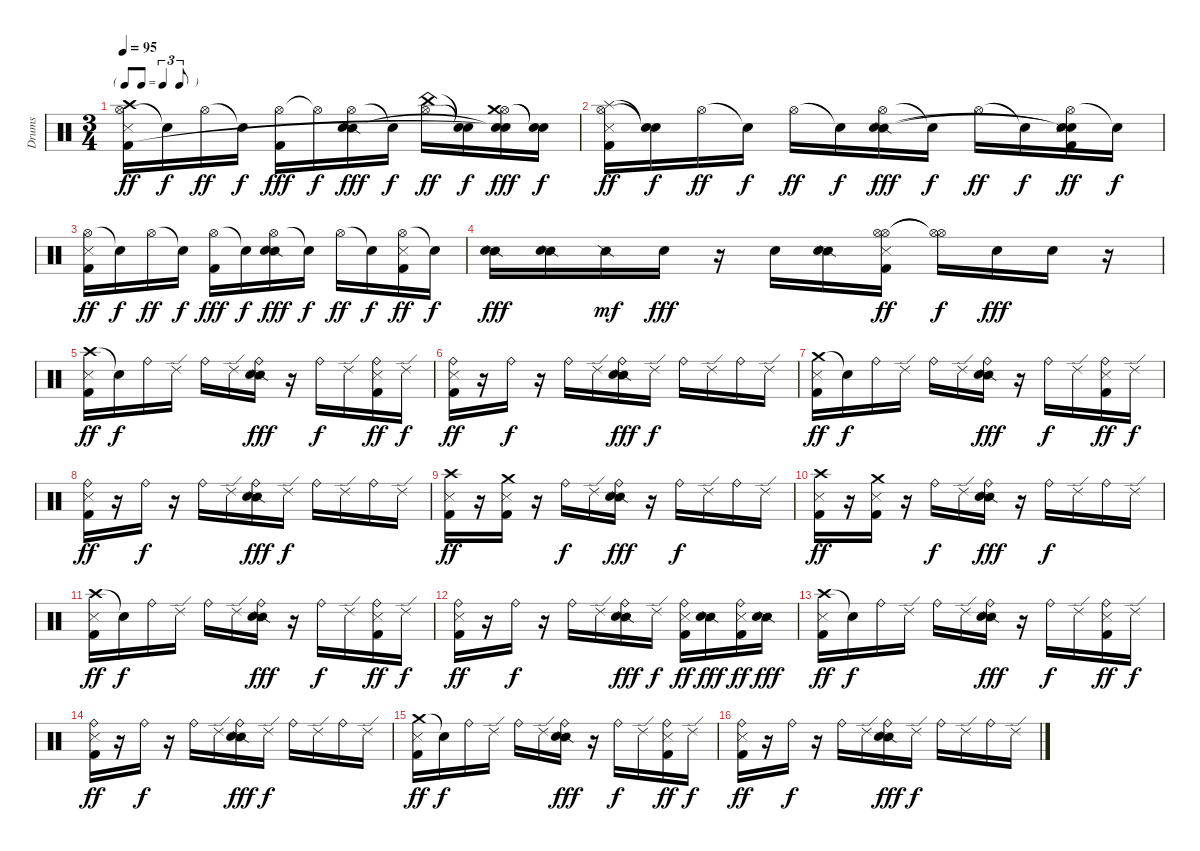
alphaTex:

\track ("Drums" "Drums") {instrument percussion}
\staff {score}
\articulation defaults
\ts (3 4)
\tf triplet8th
\tempo 95
\clef neutral
\ks c
("Hi-Hat (open)" "Crash high (hit)" "Metronome (hit)" "Kick (hit) 2").16{dy ff} "Snare (hit)"{t}.16{dy f} "Hi-Hat (open)".16{dy ff} "Snare (hit)"{t}.16{dy f} ("Hi-Hat (open)" "Kick (hit) 2").16{dy fff} "Hi-Hat (open)"{t}.16{dy f} ("Hi-Hat (open)" "Snare (side stick) 2" "Electric Snare (hit)").16{dy fff} "Snare (hit)"{t}.16{dy f} ("Hi-Hat (open)" "China (hit)").16{dy ff} ("Snare (hit)"{t} "Snare (hit)"{t}).16{dy f} ("Hi-Hat (open)" "Crash medium (hit)" "Snare (hit)"{t} "Snare (hit)"{t}).16{dy fff} ("Snare (hit)"{t} "Snare (hit)"{t}).16{dy f} |
("Hi-Hat (open)" "Splash (hit)" "Metronome (hit)" "Kick (hit) 2").16{dy ff} ("Snare (hit)"{t} "Snare (hit)"{t}).16{dy f} "Hi-Hat (open)".16{dy ff} "Snare (hit)"{t}.16{dy f} "Hi-Hat (open)".16{dy ff} "Snare (hit)"{t}.16{dy f} ("Hi-Hat (open)" "Snare (side stick) 2" "Electric Snare (hit)").16{dy fff} "Snare (hit)"{t}.16{dy f} "Hi-Hat (open)".16{dy ff} "Snare (hit)"{t}.16{dy f} ("Hi-Hat (open)" "Snare (hit)"{t} "Snare (hit)"{t} "Metronome (hit)" "Kick (hit) 2").16{dy ff} "Snare (hit)"{t}.16{dy f} |
("Hi-Hat (open)" "Metronome (hit)" "Kick (hit) 2").16{dy ff} "Snare (hit)"{t}.16{dy f} "Hi-Hat (open)".16{dy ff} "Snare (hit)"{t}.16{dy f} ("Hi-Hat (open)" "Kick (hit) 2").16{dy fff} "Snare (hit)"{t}.16{dy f} ("Hi-Hat (open)" "Snare (side stick) 2" "Electric Snare (hit)").16{dy fff} "Snare (hit)"{t}.16{dy f} "Hi-Hat (open)".16{dy ff} "Snare (hit)"{t}.16{dy f} ("Hi-Hat (open)" "Metronome (hit)" "Kick (hit) 2").16{dy ff} "Snare (hit)"{t}.16{dy f} |
("Snare (side stick) 2" "Electric Snare (hit)").16{dy fff} ("Snare (side stick) 2" "Electric Snare (hit)").16 "Snare (side stick) 2".16{dy mf} "Electric Snare (hit)".16{dy fff} r.16 "Electric Snare (hit)".16 ("Snare (side stick) 2" "Electric Snare (hit)").16 ("Hi-Hat (open)" "Hi-Hat (open)" "Metronome (hit)" "Kick (hit) 2").16{dy ff} ("Hi-Hat (open)"{t} "Hi-Hat (open)"{t}).16{dy f} "Electric Snare (hit)".16{dy fff} "Electric Snare (hit)".16 r.16 |
("Crash high (hit)" "Metronome (hit)" "Kick (hit) 2").16{dy ff} "Snare (hit)"{t}.16{dy f} "Ride (bell)".16 "Ride (edge) 2".16 "Ride (bell)".16 "Ride (edge) 2".16 ("Ride (bell)" "Snare (side stick) 2" "Electric Snare (hit)").16{dy fff} r.16 "Ride (bell)".16{dy f} "Ride (edge) 2".16 ("Ride (bell)" "Metronome (hit)" "Kick (hit) 2").16{dy ff} "Ride (edge) 2".16{dy f} |
("Ride (bell)" "Metronome (hit)" "Kick (hit) 2").16{dy ff} r.16 "Ride (bell)".16{dy f} r.16 "Ride (bell)".16 "Ride (edge) 2".16 ("Ride (bell)" "Snare (side stick) 2" "Electric Snare (hit)").16{dy fff} "Ride (edge) 2".16{dy f} "Ride (bell)".16 "Ride (edge) 2".16 "Ride (bell)".16 "Ride (edge) 2".16 |
("Crash medium (hit)" "Metronome (hit)" "Kick (hit) 2").16{dy ff} "Snare (hit)"{t}.16{dy f} "Ride (bell)".16 "Ride (edge) 2".16 "Ride (bell)".16 "Ride (edge) 2".16 ("Ride (bell)" "Snare (side stick) 2" "Electric Snare (hit)").16{dy fff} r.16 "Ride (bell)".16{dy f} "Ride (edge) 2".16 ("Ride (bell)" "Metronome (hit)" "Kick (hit) 2").16{dy ff} "Ride (edge) 2".16{dy f} |
("Ride (bell)" "Metronome (hit)" "Kick (hit) 2").16{dy ff} r.16 "Ride (bell)".16{dy f} r.16 "Ride (bell)".16 "Ride (edge) 2".16 ("Ride (bell)" "Snare (side stick) 2" "Electric Snare (hit)").16{dy fff} "Ride (edge) 2".16{dy f} "Ride (bell)".16 "Ride (edge) 2".16 "Ride (bell)".16 "Ride (edge) 2".16 |
("Crash high (hit)" "Metronome (hit)" "Kick (hit) 2").16{dy ff} r.16 ("Crash medium (hit)" "Metronome (hit)" "Kick (hit) 2").16 r.16 "Ride (bell)".16{dy f} "Ride (edge) 2".16 ("Ride (bell)" "Snare (side stick) 2" "Electric Snare (hit)").16{dy fff} r.16 "Ride (bell)".16{dy f} "Ride (edge) 2".16 "Ride (bell)".16 "Ride (edge) 2".16 |
("Crash high (hit)" "Metronome (hit)" "Kick (hit) 2").16{dy ff} r.16 ("Crash medium (hit)" "Metronome (hit)" "Kick (hit) 2").16 r.16 "Ride (bell)".16{dy f} "Ride (edge) 2".16 ("Ride (bell)" "Snare (side stick) 2" "Electric Snare (hit)").16{dy fff} r.16 "Ride (bell)".16{dy f} "Ride (edge) 2".16 "Ride (bell)".16 "Ride (edge) 2".16 |
("Crash high (hit)" "Metronome (hit)" "Kick (hit) 2").16{dy ff} "Snare (hit)"{t}.16{dy f} "Ride (bell)".16 "Ride (edge) 2".16 "Ride (bell)".16 "Ride (edge) 2".16 ("Ride (bell)" "Snare (side stick) 2" "Electric Snare (hit)").16{dy fff} r.16 "Ride (bell)".16{dy f} "Ride (edge) 2".16 ("Ride (bell)" "Metronome (hit)" "Kick (hit) 2").16{dy ff} "Ride (edge) 2".16{dy f} |
("Ride (bell)" "Metronome (hit)" "Kick (hit) 2").16{dy ff} r.16 "Ride (bell)".16{dy f} r.16 "Ride (bell)".16 "Ride (edge) 2".16 ("Ride (bell)" "Snare (side stick) 2" "Electric Snare (hit)").16{dy fff} "Ride (edge) 2".16{dy f} ("Ride (bell)" "Metronome (hit)" "Kick (hit) 2").16{dy ff} ("Snare (side stick) 2" "Electric Snare (hit)").16{dy fff} ("Ride (bell)" "Metronome (hit)" "Kick (hit) 2").16{dy ff} ("Snare (side stick) 2" "Electric Snare (hit)").16{dy fff} |
("Crash high (hit)" "Metronome (hit)" "Kick (hit) 2").16{dy ff} "Snare (hit)"{t}.16{dy f} "Ride (bell)".16 "Ride (edge) 2".16 "Ride (bell)".16 "Ride (edge) 2".16 ("Ride (bell)" "Snare (side stick) 2" "Electric Snare (hit)").16{dy fff} r.16 "Ride (bell)".16{dy f} "Ride (edge) 2".16 ("Ride (bell)" "Metronome (hit)" "Kick (hit) 2").16{dy ff} "Ride (edge) 2".16{dy f} |
("Ride (bell)" "Metronome (hit)" "Kick (hit) 2").16{dy ff} r.16 "Ride (bell)".16{dy f} r.16 "Ride (bell)".16 "Ride (edge) 2".16 ("Ride (bell)" "Snare (side stick) 2" "Electric Snare (hit)").16{dy fff} "Ride (edge) 2".16{dy f} "Ride (bell)".16 "Ride (edge) 2".16 "Ride (bell)".16 "Ride (edge) 2".16 |
("Crash medium (hit)" "Metronome (hit)" "Kick (hit) 2").16{dy ff} "Snare (hit)"{t}.16{dy f} "Ride (bell)".16 "Ride (edge) 2".16 "Ride (bell)".16 "Ride (edge) 2".16 ("Ride (bell)" "Snare (side stick) 2" "Electric Snare (hit)").16{dy fff} r.16 "Ride (bell)".16{dy f} "Ride (edge) 2".16 ("Ride (bell)" "Metronome (hit)" "Kick (hit) 2").16{dy ff} "Ride (edge) 2".16{dy f} |
("Ride (bell)" "Metronome (hit)" "Kick (hit) 2").16{dy ff} r.16 "Ride (bell)".16{dy f} r.16 "Ride (bell)".16 "Ride (edge) 2".16 ("Ride (bell)" "Snare (side stick) 2" "Electric Snare (hit)").16{dy fff} "Ride (edge) 2".16{dy f} "Ride (bell)".16 "Ride (edge) 2".16 "Ride (bell)".16 "Ride (edge) 2".16
